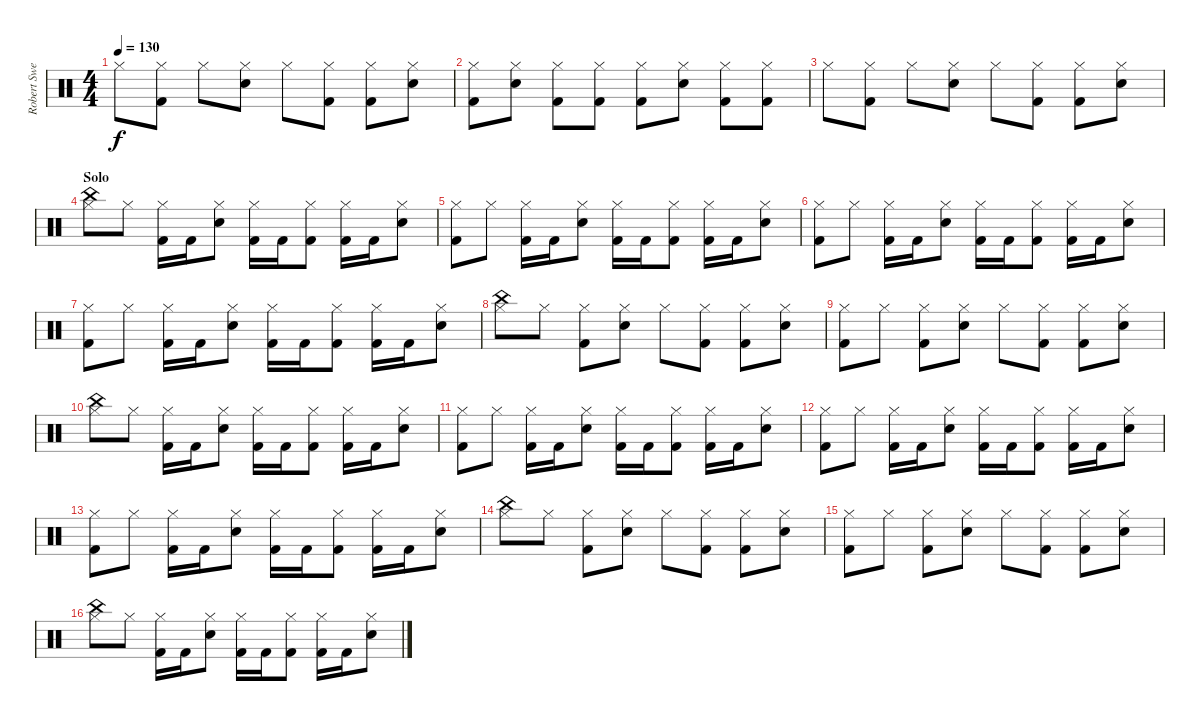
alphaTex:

\track ("Robert Sweet" "Robert Swe") {instrument percussion}
\staff {score}
\articulation defaults
\ts (4 4)
\tempo 130
\clef neutral
\ks c "Hi-Hat (closed)".8{dy f}
("Hi-Hat (closed)" "Kick (hit) 2").8 "Hi-Hat (closed)".8 ("Hi-Hat (closed)" "Snare (hit) 2").8 "Hi-Hat (closed)".8 ("Hi-Hat (closed)" "Kick (hit) 2").8 ("Hi-Hat (closed)" "Kick (hit) 2").8 ("Hi-Hat (closed)" "Snare (hit) 2").8 |
("Hi-Hat (closed)" "Kick (hit) 2").8 ("Hi-Hat (closed)" "Snare (hit) 2").8 ("Hi-Hat (closed)" "Kick (hit) 2").8 ("Hi-Hat (closed)" "Kick (hit) 2").8 ("Hi-Hat (closed)" "Kick (hit) 2").8 ("Hi-Hat (closed)" "Snare (hit) 2").8 ("Hi-Hat (closed)" "Kick (hit) 2").8 ("Hi-Hat (closed)" "Kick (hit) 2").8 |
"Hi-Hat (closed)".8 ("Hi-Hat (closed)" "Kick (hit) 2").8 "Hi-Hat (closed)".8 ("Hi-Hat (closed)" "Snare (hit) 2").8 "Hi-Hat (closed)".8 ("Hi-Hat (closed)" "Kick (hit) 2").8 ("Hi-Hat (closed)" "Kick (hit) 2").8 ("Hi-Hat (closed)" "Snare (hit) 2").8 |
\section ("" "Solo")
("Hi-Hat (closed)" "China (hit)").8 "Hi-Hat (closed)".8 ("Hi-Hat (closed)" "Kick (hit) 2").16 "Kick (hit) 2".16 ("Hi-Hat (closed)" "Snare (hit) 2").8 ("Hi-Hat (closed)" "Kick (hit) 2").16 "Kick (hit) 2".16 ("Hi-Hat (closed)" "Kick (hit) 2").8 ("Hi-Hat (closed)" "Kick (hit) 2").16 "Kick (hit) 2".16 ("Hi-Hat (closed)" "Snare (hit) 2").8 |
("Hi-Hat (closed)" "Kick (hit) 2").8 "Hi-Hat (closed)".8 ("Hi-Hat (closed)" "Kick (hit) 2").16 "Kick (hit) 2".16 ("Hi-Hat (closed)" "Snare (hit) 2").8 ("Hi-Hat (closed)" "Kick (hit) 2").16 "Kick (hit) 2".16 ("Hi-Hat (closed)" "Kick (hit) 2").8 ("Hi-Hat (closed)" "Kick (hit) 2").16 "Kick (hit) 2".16 ("Hi-Hat (closed)" "Snare (hit) 2").8 |
("Hi-Hat (closed)" "Kick (hit) 2").8 "Hi-Hat (closed)".8 ("Hi-Hat (closed)" "Kick (hit) 2").16 "Kick (hit) 2".16 ("Hi-Hat (closed)" "Snare (hit) 2").8 ("Hi-Hat (closed)" "Kick (hit) 2").16 "Kick (hit) 2".16 ("Hi-Hat (closed)" "Kick (hit) 2").8 ("Hi-Hat (closed)" "Kick (hit) 2").16 "Kick (hit) 2".16 ("Hi-Hat (closed)" "Snare (hit) 2").8 |
("Hi-Hat (closed)" "Kick (hit) 2").8 "Hi-Hat (closed)".8 ("Hi-Hat (closed)" "Kick (hit) 2").16 "Kick (hit) 2".16 ("Hi-Hat (closed)" "Snare (hit) 2").8 ("Hi-Hat (closed)" "Kick (hit) 2").16 "Kick (hit) 2".16 ("Hi-Hat (closed)" "Kick (hit) 2").8 ("Hi-Hat (closed)" "Kick (hit) 2").16 "Kick (hit) 2".16 ("Hi-Hat (closed)" "Snare (hit) 2").8 |
("Hi-Hat (closed)" "China (hit)").8 "Hi-Hat (closed)".8 ("Hi-Hat (closed)" "Kick (hit) 2").8 ("Hi-Hat (closed)" "Snare (hit) 2").8 "Hi-Hat (closed)".8 ("Hi-Hat (closed)" "Kick (hit) 2").8 ("Hi-Hat (closed)" "Kick (hit) 2").8 ("Hi-Hat (closed)" "Snare (hit) 2").8 |
("Hi-Hat (closed)" "Kick (hit) 2").8 "Hi-Hat (closed)".8 ("Hi-Hat (closed)" "Kick (hit) 2").8 ("Hi-Hat (closed)" "Snare (hit) 2").8 "Hi-Hat (closed)".8 ("Hi-Hat (closed)" "Kick (hit) 2").8 ("Hi-Hat (closed)" "Kick (hit) 2").8 ("Hi-Hat (closed)" "Snare (hit) 2").8 |
("Hi-Hat (closed)" "China (hit)").8 "Hi-Hat (closed)".8 ("Hi-Hat (closed)" "Kick (hit) 2").16 "Kick (hit) 2".16 ("Hi-Hat (closed)" "Snare (hit) 2").8 ("Hi-Hat (closed)" "Kick (hit) 2").16 "Kick (hit) 2".16 ("Hi-Hat (closed)" "Kick (hit) 2").8 ("Hi-Hat (closed)" "Kick (hit) 2").16 "Kick (hit) 2".16 ("Hi-Hat (closed)" "Snare (hit) 2").8 |
("Hi-Hat (closed)" "Kick (hit) 2").8 "Hi-Hat (closed)".8 ("Hi-Hat (closed)" "Kick (hit) 2").16 "Kick (hit) 2".16 ("Hi-Hat (closed)" "Snare (hit) 2").8 ("Hi-Hat (closed)" "Kick (hit) 2").16 "Kick (hit) 2".16 ("Hi-Hat (closed)" "Kick (hit) 2").8 ("Hi-Hat (closed)" "Kick (hit) 2").16 "Kick (hit) 2".16 ("Hi-Hat (closed)" "Snare (hit) 2").8 |
("Hi-Hat (closed)" "Kick (hit) 2").8 "Hi-Hat (closed)".8 ("Hi-Hat (closed)" "Kick (hit) 2").16 "Kick (hit) 2".16 ("Hi-Hat (closed)" "Snare (hit) 2").8 ("Hi-Hat (closed)" "Kick (hit) 2").16 "Kick (hit) 2".16 ("Hi-Hat (closed)" "Kick (hit) 2").8 ("Hi-Hat (closed)" "Kick (hit) 2").16 "Kick (hit) 2".16 ("Hi-Hat (closed)" "Snare (hit) 2").8 |
("Hi-Hat (closed)" "Kick (hit) 2").8 "Hi-Hat (closed)".8 ("Hi-Hat (closed)" "Kick (hit) 2").16 "Kick (hit) 2".16 ("Hi-Hat (closed)" "Snare (hit) 2").8 ("Hi-Hat (closed)" "Kick (hit) 2").16 "Kick (hit) 2".16 ("Hi-Hat (closed)" "Kick (hit) 2").8 ("Hi-Hat (closed)" "Kick (hit) 2").16 "Kick (hit) 2".16 ("Hi-Hat (closed)" "Snare (hit) 2").8 |
("Hi-Hat (closed)" "China (hit)").8 "Hi-Hat (closed)".8 ("Hi-Hat (closed)" "Kick (hit) 2").8 ("Hi-Hat (closed)" "Snare (hit) 2").8 "Hi-Hat (closed)".8 ("Hi-Hat (closed)" "Kick (hit) 2").8 ("Hi-Hat (closed)" "Kick (hit) 2").8 ("Hi-Hat (closed)" "Snare (hit) 2").8 |
("Hi-Hat (closed)" "Kick (hit) 2").8 "Hi-Hat (closed)".8 ("Hi-Hat (closed)" "Kick (hit) 2").8 ("Hi-Hat (closed)" "Snare (hit) 2").8 "Hi-Hat (closed)".8 ("Hi-Hat (closed)" "Kick (hit) 2").8 ("Hi-Hat (closed)" "Kick (hit) 2").8 ("Hi-Hat (closed)" "Snare (hit) 2").8 |
("Hi-Hat (closed)" "China (hit)").8 "Hi-Hat (closed)".8 ("Hi-Hat (closed)" "Kick (hit) 2").16 "Kick (hit) 2".16 ("Hi-Hat (closed)" "Snare (hit) 2").8 ("Hi-Hat (closed)" "Kick (hit) 2").16 "Kick (hit) 2".16 ("Hi-Hat (closed)" "Kick (hit) 2").8 ("Hi-Hat (closed)" "Kick (hit) 2").16 "Kick (hit) 2".16 ("Hi-Hat (closed)" "Snare (hit) 2").8
